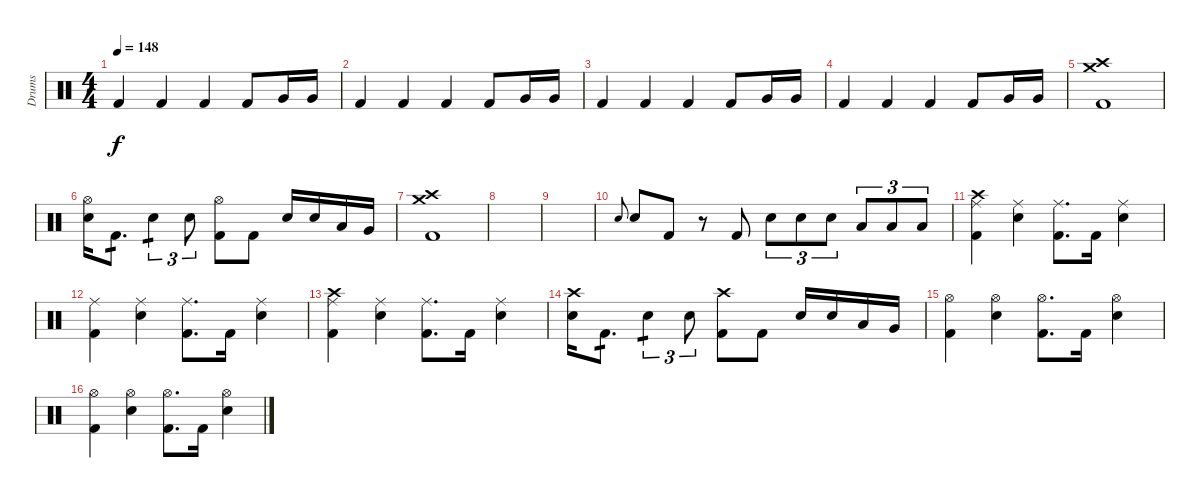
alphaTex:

\track ("Drums" "Drums") {instrument percussion}
\staff {score}
\articulation defaults
\ts (4 4)
\tempo 148
\clef neutral
\ks c "Kick (hit) 2".4{dy f} "Kick (hit) 2".4 "Kick (hit) 2".4 "Kick (hit) 2".8 "Very Low Tom (hit)".16 "Very Low Tom (hit)".16
|
"Kick (hit) 2".4 "Kick (hit) 2".4 "Kick (hit) 2".4 "Kick (hit) 2".8 "Very Low Tom (hit)".16 "Very Low Tom (hit)".16 |
"Kick (hit) 2".4 "Kick (hit) 2".4 "Kick (hit) 2".4 "Kick (hit) 2".8 "Very Low Tom (hit)".16 "Very Low Tom (hit)".16 |
"Kick (hit) 2".4 "Kick (hit) 2".4 "Kick (hit) 2".4 "Kick (hit) 2".8 "Very Low Tom (hit)".16 "Very Low Tom (hit)".16 |
("Crash high (hit)" "Crash medium (hit)" "Kick (hit) 2").1 |
("Hi-Hat (open)" "Electric Snare (hit)").16 "Kick (hit) 2".8{d tp 1} "Electric Snare (hit)".4{tu (3 2) tp 1} "Electric Snare (hit)".8{tu (3 2)} ("Hi-Hat (open)" "Kick (hit) 2").8 "Kick (hit) 2".8 "Electric Snare (hit)".16 "Electric Snare (hit)".16 "Low Tom (hit)".16 "Very Low Tom (hit)".16 |
("Crash high (hit)" "Crash medium (hit)" "Kick (hit) 2").1 |
|
|
"Electric Snare (hit)".8{gr onbeat} "Electric Snare (hit)".8 "Kick (hit) 2".8 r.8 "Kick (hit) 2".8 "Electric Snare (hit)".8{tu (3 2)} "Electric Snare (hit)".8{tu (3 2)} "Electric Snare (hit)".8{tu (3 2)} "Low Tom (hit)".8{tu (3 2)} "Low Tom (hit)".8{tu (3 2)} "Low Tom (hit)".8{tu (3 2)} |
("Crash high (hit)" "Ride (middle)" "Kick (hit) 2").4 ("Ride (middle)" "Electric Snare (hit)").4 ("Ride (middle)" "Kick (hit) 2").8{d} "Kick (hit) 2".16 ("Ride (middle)" "Electric Snare (hit)").4 |
("Ride (middle)" "Kick (hit) 2").4 ("Ride (middle)" "Electric Snare (hit)").4 ("Ride (middle)" "Kick (hit) 2").8{d} "Kick (hit) 2".16 ("Ride (middle)" "Electric Snare (hit)").4 |
("Crash high (hit)" "Ride (middle)" "Kick (hit) 2").4 ("Ride (middle)" "Electric Snare (hit)").4 ("Ride (middle)" "Kick (hit) 2").8{d} "Kick (hit) 2".16 ("Ride (middle)" "Electric Snare (hit)").4 |
("Crash high (hit)" "Electric Snare (hit)").16 "Kick (hit) 2".8{d tp 1} "Electric Snare (hit)".4{tu (3 2) tp 1} "Electric Snare (hit)".8{tu (3 2)} ("Crash high (hit)" "Kick (hit) 2").8 "Kick (hit) 2".8 "Electric Snare (hit)".16 "Electric Snare (hit)".16 "Low Tom (hit)".16 "Very Low Tom (hit)".16 |
("Hi-Hat (open)" "Kick (hit) 2").4 ("Hi-Hat (open)" "Electric Snare (hit)").4 ("Hi-Hat (open)" "Kick (hit) 2").8{d} "Kick (hit) 2".16 ("Hi-Hat (open)" "Electric Snare (hit)").4 |
("Hi-Hat (open)" "Kick (hit) 2").4 ("Hi-Hat (open)" "Electric Snare (hit)").4 ("Hi-Hat (open)" "Kick (hit) 2").8{d} "Kick (hit) 2".16 ("Hi-Hat (open)" "Electric Snare (hit)").4
